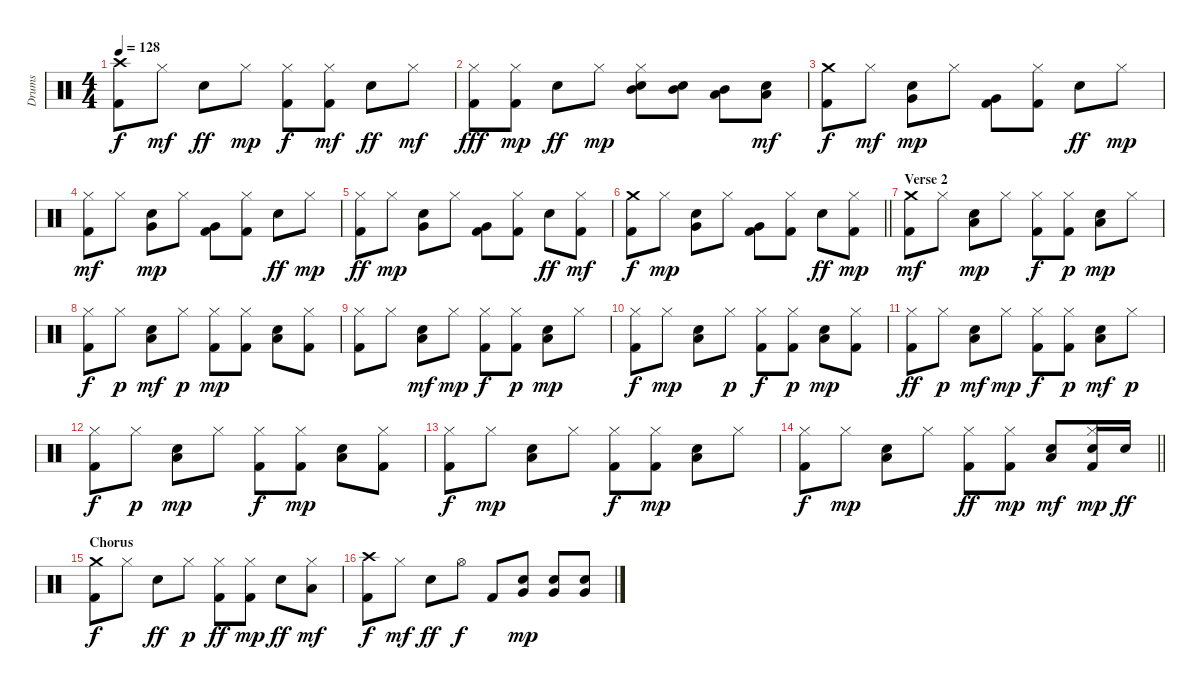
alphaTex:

\track ("Drums" "Drums") {instrument percussion}
\staff {score}
\articulation defaults
\ts (4 4)
\tempo 128
\clef neutral
\ks c
("Kick (hit) 2" "Crash high (hit)").8{dy f} "Hi-Hat (closed)".8{dy mf} "Electric Snare (hit)".8{dy ff} "Hi-Hat (closed)".8{dy mp} ("Kick (hit) 2" "Hi-Hat (closed)").8{dy f} ("Kick (hit) 2" "Hi-Hat (closed)").8{dy mf} "Electric Snare (hit)".8{dy ff} "Hi-Hat (closed)".8{dy mf} |
("Kick (hit) 2" "Hi-Hat (closed)").8{dy fff} ("Kick (hit) 2" "Hi-Hat (closed)").8{dy mp} "Electric Snare (hit)".8{dy ff} "Hi-Hat (closed)".8{dy mp} ("Electric Snare (hit)" "Hi-Hat (closed)" "Mid Tom (hit)").8 ("Electric Snare (hit)" "Mid Tom (hit)").8 ("Low Tom (hit)" "Mid Tom (hit)").8 ("Electric Snare (hit)" "Low Tom (hit)").8{dy mf} |
("Kick (hit) 2" "Crash medium (hit)").8{dy f} "Hi-Hat (closed)".8{dy mf} ("Electric Snare (hit)" "Very Low Tom (hit)").8{dy mp} "Hi-Hat (closed)".8 ("Kick (hit) 2" "Very Low Tom (hit)").8 ("Kick (hit) 2" "Hi-Hat (closed)").8 "Electric Snare (hit)".8{dy ff} "Hi-Hat (closed)".8{dy mp} |
("Kick (hit) 2" "Hi-Hat (closed)").8{dy mf} "Hi-Hat (closed)".8 ("Electric Snare (hit)" "Very Low Tom (hit)").8{dy mp} "Hi-Hat (closed)".8 ("Kick (hit) 2" "Very Low Tom (hit)").8 ("Kick (hit) 2" "Hi-Hat (closed)").8 "Electric Snare (hit)".8{dy ff} "Hi-Hat (closed)".8{dy mp} |
("Kick (hit) 2" "Hi-Hat (closed)").8{dy ff} "Hi-Hat (closed)".8{dy mp} ("Electric Snare (hit)" "Very Low Tom (hit)").8 "Hi-Hat (closed)".8 ("Kick (hit) 2" "Very Low Tom (hit)").8 ("Kick (hit) 2" "Hi-Hat (closed)").8 "Electric Snare (hit)".8{dy ff} ("Kick (hit) 2" "Hi-Hat (closed)").8{dy mf} |
\barLineRight lightlight
("Kick (hit) 2" "Crash medium (hit)").8{dy f} "Hi-Hat (closed)".8{dy mp} ("Electric Snare (hit)" "Very Low Tom (hit)").8 "Hi-Hat (closed)".8 ("Kick (hit) 2" "Very Low Tom (hit)").8 ("Kick (hit) 2" "Hi-Hat (closed)").8 "Electric Snare (hit)".8{dy ff} ("Kick (hit) 2" "Hi-Hat (closed)").8{dy mp} |
\section ("" "Verse 2")
("Kick (hit) 2" "Crash medium (hit)").8{dy mf} "Hi-Hat (closed)".8 ("Electric Snare (hit)" "Low Tom (hit)").8{dy mp} "Hi-Hat (closed)".8 ("Kick (hit) 2" "Hi-Hat (closed)").8{dy f} ("Kick (hit) 2" "Hi-Hat (closed)").8{dy p} ("Electric Snare (hit)" "Low Tom (hit)").8{dy mp} "Hi-Hat (closed)".8 |
("Kick (hit) 2" "Hi-Hat (closed)").8{dy f} "Hi-Hat (closed)".8{dy p} ("Electric Snare (hit)" "Low Tom (hit)").8{dy mf} "Hi-Hat (closed)".8{dy p} ("Kick (hit) 2" "Hi-Hat (closed)").8{dy mp} ("Kick (hit) 2" "Hi-Hat (closed)").8 ("Electric Snare (hit)" "Low Tom (hit)").8 ("Kick (hit) 2" "Hi-Hat (closed)").8 |
("Kick (hit) 2" "Hi-Hat (closed)").8 "Hi-Hat (closed)".8 ("Electric Snare (hit)" "Low Tom (hit)").8{dy mf} "Hi-Hat (closed)".8{dy mp} ("Kick (hit) 2" "Hi-Hat (closed)").8{dy f} ("Kick (hit) 2" "Hi-Hat (closed)").8{dy p} ("Electric Snare (hit)" "Low Tom (hit)").8{dy mp} "Hi-Hat (closed)".8 |
("Kick (hit) 2" "Hi-Hat (closed)").8{dy f} "Hi-Hat (closed)".8{dy mp} ("Electric Snare (hit)" "Low Tom (hit)").8 "Hi-Hat (closed)".8{dy p} ("Kick (hit) 2" "Hi-Hat (closed)").8{dy f} ("Kick (hit) 2" "Hi-Hat (closed)").8{dy p} ("Electric Snare (hit)" "Low Tom (hit)").8{dy mp} ("Kick (hit) 2" "Hi-Hat (closed)").8 |
("Kick (hit) 2" "Hi-Hat (closed)").8{dy ff} "Hi-Hat (closed)".8{dy p} ("Electric Snare (hit)" "Low Tom (hit)").8{dy mf} "Hi-Hat (closed)".8{dy mp} ("Kick (hit) 2" "Hi-Hat (closed)").8{dy f} ("Kick (hit) 2" "Hi-Hat (closed)").8{dy p} ("Electric Snare (hit)" "Low Tom (hit)").8{dy mf} "Hi-Hat (closed)".8{dy p} |
("Kick (hit) 2" "Hi-Hat (closed)").8{dy f} "Hi-Hat (closed)".8{dy p} ("Electric Snare (hit)" "Low Tom (hit)").8{dy mp} "Hi-Hat (closed)".8 ("Kick (hit) 2" "Hi-Hat (closed)").8{dy f} ("Kick (hit) 2" "Hi-Hat (closed)").8{dy mp} ("Electric Snare (hit)" "Low Tom (hit)").8 ("Kick (hit) 2" "Hi-Hat (closed)").8 |
("Kick (hit) 2" "Hi-Hat (closed)").8{dy f} "Hi-Hat (closed)".8{dy mp} ("Electric Snare (hit)" "Low Tom (hit)").8 "Hi-Hat (closed)".8 ("Kick (hit) 2" "Hi-Hat (closed)").8{dy f} ("Kick (hit) 2" "Hi-Hat (closed)").8{dy mp} ("Electric Snare (hit)" "Low Tom (hit)").8 "Hi-Hat (closed)".8 |
\barLineRight lightlight
("Kick (hit) 2" "Hi-Hat (closed)").8{dy f} "Hi-Hat (closed)".8{dy mp} ("Electric Snare (hit)" "Low Tom (hit)").8 "Hi-Hat (closed)".8 ("Kick (hit) 2" "Hi-Hat (closed)").8{dy ff} ("Kick (hit) 2" "Hi-Hat (closed)").8{dy mp} ("Electric Snare (hit)" "Low Tom (hit)").8{dy mf} ("Kick (hit) 2" "Electric Snare (hit)" "Hi-Hat (closed)").16{dy mp} "Electric Snare (hit)".16{dy ff} |
\section ("" "Chorus")
("Kick (hit) 2" "Crash medium (hit)").8{dy f} "Hi-Hat (closed)".8 "Electric Snare (hit)".8{dy ff} "Hi-Hat (closed)".8{dy p} ("Kick (hit) 2" "Hi-Hat (closed)").8{dy ff} ("Kick (hit) 2" "Hi-Hat (closed)").8{dy mp} "Electric Snare (hit)".8{dy ff} ("Hi-Hat (closed)" "Low Tom (hit)").8{dy mf} |
("Kick (hit) 2" "Crash high (hit)").8{dy f} "Hi-Hat (closed)".8{dy mf} "Electric Snare (hit)".8{dy ff} "Hi-Hat (open)".8{dy f} "Kick (hit) 2".8 ("Electric Snare (hit)" "Very Low Tom (hit)").8{dy mp} ("Electric Snare (hit)" "Very Low Tom (hit)").8 ("Electric Snare (hit)" "Very Low Tom (hit)").8
